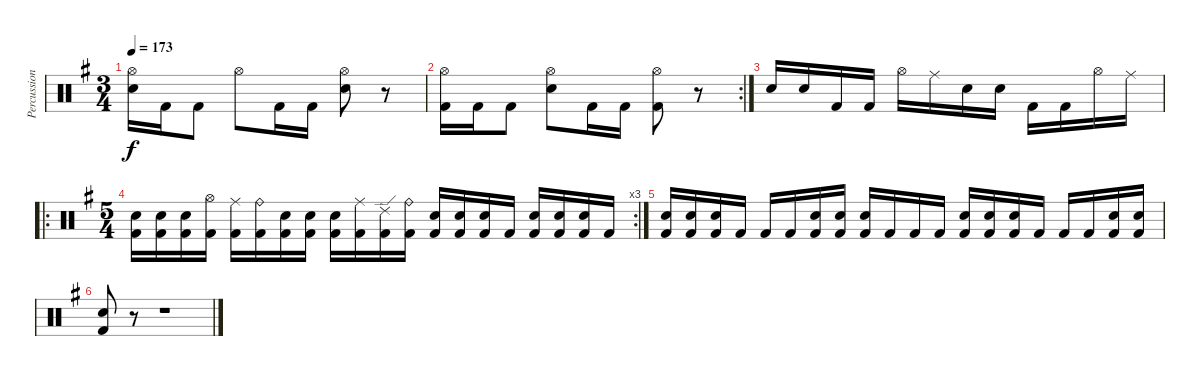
\track ("Percussion" "Percussion") {instrument percussion}
\staff {score}
\articulation defaults
\ts (3 4)
\tempo 173
\clef neutral
\ks eminor
("Hi-Hat (open)" "Electric Snare (hit)").16{dy f} "Kick (hit) 2".16 "Kick (hit) 2".8 "Hi-Hat (open)".8 "Kick (hit) 2".16 "Kick (hit) 2".16 ("Hi-Hat (open)" "Electric Snare (hit)").8 r.8 |
\rc 2
("Hi-Hat (open)" "Kick (hit) 2").16 "Kick (hit) 2".16 "Kick (hit) 2".8 ("Hi-Hat (open)" "Electric Snare (hit)").8 "Kick (hit) 2".16 "Kick (hit) 2".16 ("Hi-Hat (open)" "Kick (hit) 2").8 r.8 |
"Electric Snare (hit)".16 "Electric Snare (hit)".16 "Kick (hit) 2".16 "Kick (hit) 2".16 "Hi-Hat (open)".16 "Ride (middle)".16 "Electric Snare (hit)".16 "Electric Snare (hit)".16 "Kick (hit) 2".16 "Kick (hit) 2".16 "Hi-Hat (open)".16 "Ride (middle)".16 |
\ro
\rc 3
\ts (5 4)
("Electric Snare (hit)" "Kick (hit) 2").16 ("Electric Snare (hit)" "Kick (hit) 2").16 ("Electric Snare (hit)" "Kick (hit) 2").16 ("Hi-Hat (open)" "Kick (hit) 2").16 ("Ride (middle)" "Kick (hit) 2").16 ("Ride (bell)" "Kick (hit) 2").16 ("Electric Snare (hit)" "Kick (hit) 2").16 ("Electric Snare (hit)" "Kick (hit) 2").16 ("Electric Snare (hit)" "Kick (hit) 2").16 ("Ride (middle)" "Kick (hit) 2").16 ("Ride (edge) 2" "Kick (hit) 2").16 ("Ride (bell)" "Kick (hit) 2").16 ("Electric Snare (hit)" "Kick (hit) 2").16 ("Electric Snare (hit)" "Kick (hit) 2").16 ("Electric Snare (hit)" "Kick (hit) 2").16 "Kick (hit) 2".16 ("Electric Snare (hit)" "Kick (hit) 2").16 ("Electric Snare (hit)" "Kick (hit) 2").16 ("Electric Snare (hit)" "Kick (hit) 2").16 "Kick (hit) 2".16 |
("Electric Snare (hit)" "Kick (hit) 2").16 ("Electric Snare (hit)" "Kick (hit) 2").16 ("Electric Snare (hit)" "Kick (hit) 2").16 "Kick (hit) 2".16 "Kick (hit) 2".16 "Kick (hit) 2".16 ("Electric Snare (hit)" "Kick (hit) 2").16 ("Electric Snare (hit)" "Kick (hit) 2").16 ("Electric Snare (hit)" "Kick (hit) 2").16 "Kick (hit) 2".16 "Kick (hit) 2".16 "Kick (hit) 2".16 ("Electric Snare (hit)" "Kick (hit) 2").16 ("Electric Snare (hit)" "Kick (hit) 2").16 ("Electric Snare (hit)" "Kick (hit) 2").16 "Kick (hit) 2".16 "Kick (hit) 2".16 "Kick (hit) 2".16 ("Electric Snare (hit)" "Kick (hit) 2").16 ("Electric Snare (hit)" "Kick (hit) 2").16 |
("Electric Snare (hit)" "Kick (hit) 2").8 r.8 r.1
